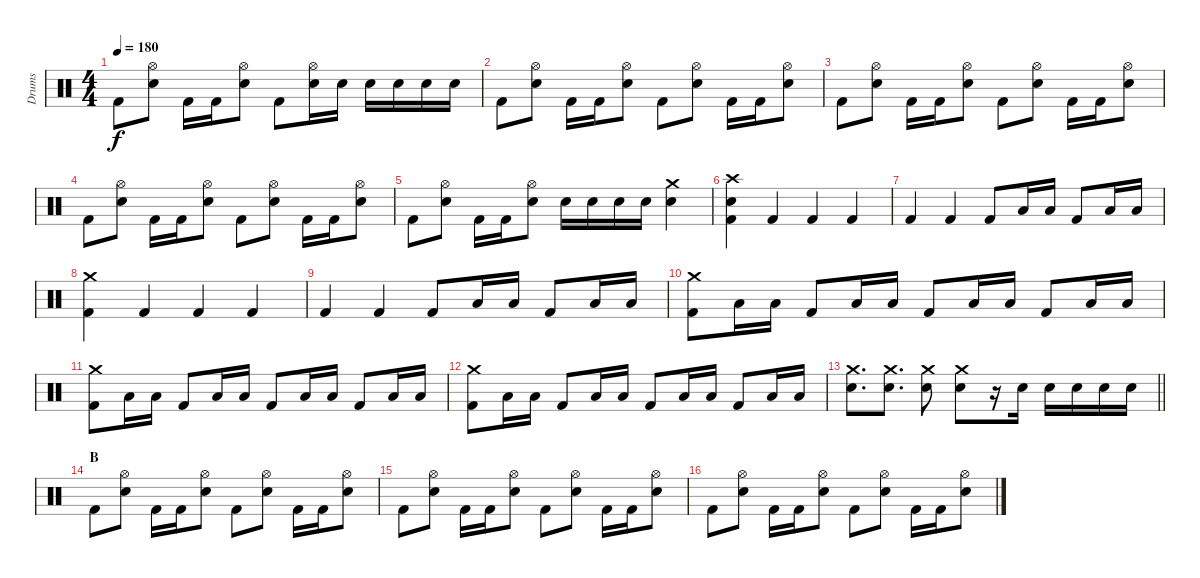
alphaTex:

\track ("Drums" "Drums") {instrument percussion}
\staff {score}
\articulation defaults
\ts (4 4)
\tempo 180
\clef neutral
\ks c "Kick (hit) 2".8{dy f}
("Hi-Hat (open)" "Electric Snare (hit)").8 "Kick (hit) 2".16 "Kick (hit) 2".16 ("Hi-Hat (open)" "Electric Snare (hit)").8 "Kick (hit) 2".8 ("Hi-Hat (open)" "Electric Snare (hit)").16 "Electric Snare (hit)".16 "Electric Snare (hit)".16 "Electric Snare (hit)".16 "Electric Snare (hit)".16 "Electric Snare (hit)".16 |
"Kick (hit) 2".8 ("Hi-Hat (open)" "Electric Snare (hit)").8 "Kick (hit) 2".16 "Kick (hit) 2".16 ("Hi-Hat (open)" "Electric Snare (hit)").8 "Kick (hit) 2".8 ("Hi-Hat (open)" "Electric Snare (hit)").8 "Kick (hit) 2".16 "Kick (hit) 2".16 ("Hi-Hat (open)" "Electric Snare (hit)").8 |
"Kick (hit) 2".8 ("Hi-Hat (open)" "Electric Snare (hit)").8 "Kick (hit) 2".16 "Kick (hit) 2".16 ("Hi-Hat (open)" "Electric Snare (hit)").8 "Kick (hit) 2".8 ("Hi-Hat (open)" "Electric Snare (hit)").8 "Kick (hit) 2".16 "Kick (hit) 2".16 ("Hi-Hat (open)" "Electric Snare (hit)").8 |
"Kick (hit) 2".8 ("Hi-Hat (open)" "Electric Snare (hit)").8 "Kick (hit) 2".16 "Kick (hit) 2".16 ("Hi-Hat (open)" "Electric Snare (hit)").8 "Kick (hit) 2".8 ("Hi-Hat (open)" "Electric Snare (hit)").8 "Kick (hit) 2".16 "Kick (hit) 2".16 ("Hi-Hat (open)" "Electric Snare (hit)").8 |
"Kick (hit) 2".8 ("Hi-Hat (open)" "Electric Snare (hit)").8 "Kick (hit) 2".16 "Kick (hit) 2".16 ("Hi-Hat (open)" "Electric Snare (hit)").8 "Electric Snare (hit)".16 "Electric Snare (hit)".16 "Electric Snare (hit)".16 "Electric Snare (hit)".16 ("Crash medium (hit)" "Electric Snare (hit)").4 |
("Crash high (hit)" "Electric Snare (hit)" "Kick (hit) 2").4 "Kick (hit) 2".4 "Kick (hit) 2".4 "Kick (hit) 2".4 |
"Kick (hit) 2".4 "Kick (hit) 2".4 "Kick (hit) 2".8 "Low Tom (hit)".16 "Low Tom (hit)".16 "Kick (hit) 2".8 "Low Tom (hit)".16 "Low Tom (hit)".16 |
("Crash medium (hit)" "Kick (hit) 2").4 "Kick (hit) 2".4 "Kick (hit) 2".4 "Kick (hit) 2".4 |
"Kick (hit) 2".4 "Kick (hit) 2".4 "Kick (hit) 2".8 "Low Tom (hit)".16 "Low Tom (hit)".16 "Kick (hit) 2".8 "Low Tom (hit)".16 "Low Tom (hit)".16 |
("Crash medium (hit)" "Kick (hit) 2").8 "Low Tom (hit)".16 "Low Tom (hit)".16 "Kick (hit) 2".8 "Low Tom (hit)".16 "Low Tom (hit)".16 "Kick (hit) 2".8 "Low Tom (hit)".16 "Low Tom (hit)".16 "Kick (hit) 2".8 "Low Tom (hit)".16 "Low Tom (hit)".16 |
("Crash medium (hit)" "Kick (hit) 2").8 "Low Tom (hit)".16 "Low Tom (hit)".16 "Kick (hit) 2".8 "Low Tom (hit)".16 "Low Tom (hit)".16 "Kick (hit) 2".8 "Low Tom (hit)".16 "Low Tom (hit)".16 "Kick (hit) 2".8 "Low Tom (hit)".16 "Low Tom (hit)".16 |
("Crash medium (hit)" "Kick (hit) 2").8 "Low Tom (hit)".16 "Low Tom (hit)".16 "Kick (hit) 2".8 "Low Tom (hit)".16 "Low Tom (hit)".16 "Kick (hit) 2".8 "Low Tom (hit)".16 "Low Tom (hit)".16 "Kick (hit) 2".8 "Low Tom (hit)".16 "Low Tom (hit)".16 |
\barLineRight lightlight
("Crash medium (hit)" "Electric Snare (hit)").8{d} ("Crash medium (hit)" "Electric Snare (hit)").8{d} ("Crash medium (hit)" "Electric Snare (hit)").8 ("Crash medium (hit)" "Electric Snare (hit)").8 r.16 "Electric Snare (hit)".16 "Electric Snare (hit)".16 "Electric Snare (hit)".16 "Electric Snare (hit)".16 "Electric Snare (hit)".16 |
\section ("" "B")
"Kick (hit) 2".8 ("Hi-Hat (open)" "Electric Snare (hit)").8 "Kick (hit) 2".16 "Kick (hit) 2".16 ("Hi-Hat (open)" "Electric Snare (hit)").8 "Kick (hit) 2".8 ("Hi-Hat (open)" "Electric Snare (hit)").8 "Kick (hit) 2".16 "Kick (hit) 2".16 ("Hi-Hat (open)" "Electric Snare (hit)").8 |
"Kick (hit) 2".8 ("Hi-Hat (open)" "Electric Snare (hit)").8 "Kick (hit) 2".16 "Kick (hit) 2".16 ("Hi-Hat (open)" "Electric Snare (hit)").8 "Kick (hit) 2".8 ("Hi-Hat (open)" "Electric Snare (hit)").8 "Kick (hit) 2".16 "Kick (hit) 2".16 ("Hi-Hat (open)" "Electric Snare (hit)").8 |
"Kick (hit) 2".8 ("Hi-Hat (open)" "Electric Snare (hit)").8 "Kick (hit) 2".16 "Kick (hit) 2".16 ("Hi-Hat (open)" "Electric Snare (hit)").8 "Kick (hit) 2".8 ("Hi-Hat (open)" "Electric Snare (hit)").8 "Kick (hit) 2".16 "Kick (hit) 2".16 ("Hi-Hat (open)" "Electric Snare (hit)").8
